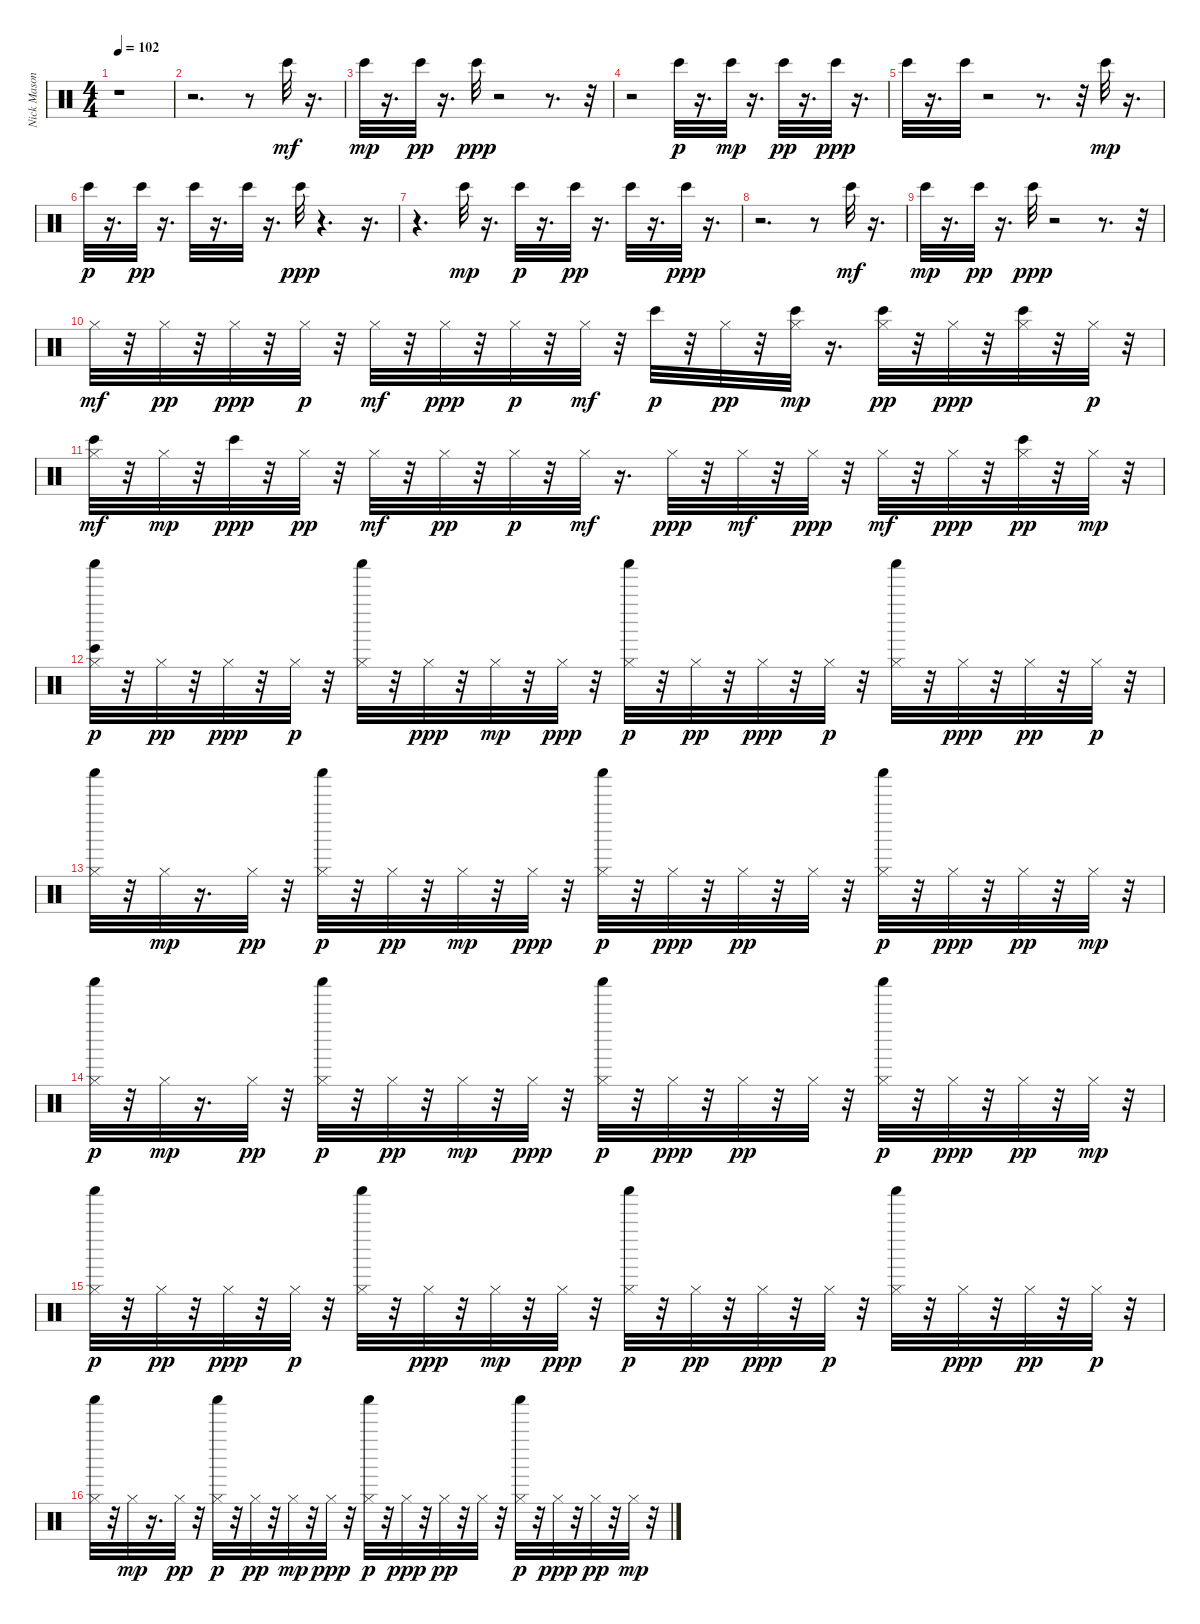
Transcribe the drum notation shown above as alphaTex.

\track ("Nick Mason / Gary Wallis" "Nick Mason") {instrument percussion}
\staff {score}
\articulation defaults
\ts (4 4)
\tempo 102
\clef neutral
\ks c
r.1{dy mf} |
r.2{d} r.8 "Bongo High (hit)".32 r.16{d} |
"Bongo High (hit)".32{dy mp} r.16{d} "Bongo High (hit)".32{dy pp} r.16{d} "Bongo High (hit)".32{dy ppp} r.2 r.8{d} r.32 |
r.2 "Bongo High (hit)".32{dy p} r.16{d} "Bongo High (hit)".32{dy mp} r.16{d} "Bongo High (hit)".32{dy pp} r.16{d} "Bongo High (hit)".32{dy ppp} r.16{d} |
"Bongo High (hit)".32 r.16{d} "Bongo High (hit)".32 r.2 r.8{d} r.32 "Bongo High (hit)".32{dy mp} r.16{d} |
"Bongo High (hit)".32{dy p} r.16{d} "Bongo High (hit)".32{dy pp} r.16{d} "Bongo High (hit)".32 r.16{d} "Bongo High (hit)".32 r.16{d} "Bongo High (hit)".32{dy ppp} r.4{d} r.16{d} |
r.4{d} "Bongo High (hit)".32{dy mp} r.16{d} "Bongo High (hit)".32{dy p} r.16{d} "Bongo High (hit)".32{dy pp} r.16{d} "Bongo High (hit)".32 r.16{d} "Bongo High (hit)".32{dy ppp} r.16{d} |
r.2{d} r.8 "Bongo High (hit)".32{dy mf} r.16{d} |
"Bongo High (hit)".32{dy mp} r.16{d} "Bongo High (hit)".32{dy pp} r.16{d} "Bongo High (hit)".32{dy ppp} r.2 r.8{d} r.32 |
"Hi-Hat (closed)".32{dy mf} r.32 "Hi-Hat (closed)".32{dy pp} r.32 "Hi-Hat (closed)".32{dy ppp} r.32 "Hi-Hat (closed)".32{dy p} r.32 "Hi-Hat (closed)".32{dy mf} r.32 "Hi-Hat (closed)".32{dy ppp} r.32 "Hi-Hat (closed)".32{dy p} r.32 "Hi-Hat (closed)".32{dy mf} r.32 "Bongo High (hit)".32{dy p} r.32 "Hi-Hat (closed)".32{dy pp} r.32 ("Bongo High (hit)" "Hi-Hat (closed)").32{dy mp} r.16{d} ("Hi-Hat (closed)" "Bongo High (hit)").32{dy pp} r.32 "Hi-Hat (closed)".32{dy ppp} r.32 ("Hi-Hat (closed)" "Bongo High (hit)").32 r.32 "Hi-Hat (closed)".32{dy p} r.32 |
("Bongo High (hit)" "Hi-Hat (closed)").32{dy mf} r.32 "Hi-Hat (closed)".32{dy mp} r.32 "Bongo High (hit)".32{dy ppp} r.32 "Hi-Hat (closed)".32{dy pp} r.32 "Hi-Hat (closed)".32{dy mf} r.32 "Hi-Hat (closed)".32{dy pp} r.32 "Hi-Hat (closed)".32{dy p} r.32 "Hi-Hat (closed)".32{dy mf} r.16{d} "Hi-Hat (closed)".32{dy ppp} r.32 "Hi-Hat (closed)".32{dy mf} r.32 "Hi-Hat (closed)".32{dy ppp} r.32 "Hi-Hat (closed)".32{dy mf} r.32 "Hi-Hat (closed)".32{dy ppp} r.32 ("Bongo High (hit)" "Hi-Hat (closed)").32{dy pp} r.32 "Hi-Hat (closed)".32{dy mp} r.32 |
("Bongo High (hit)" "Hi-Hat (closed)" "Shaker (hit)").32{dy p} r.32 "Hi-Hat (closed)".32{dy pp} r.32 "Hi-Hat (closed)".32{dy ppp} r.32 "Hi-Hat (closed)".32{dy p} r.32 ("Hi-Hat (closed)" "Shaker (hit)").32 r.32 "Hi-Hat (closed)".32{dy ppp} r.32 "Hi-Hat (closed)".32{dy mp} r.32 "Hi-Hat (closed)".32{dy ppp} r.32 ("Hi-Hat (closed)" "Shaker (hit)").32{dy p} r.32 "Hi-Hat (closed)".32{dy pp} r.32 "Hi-Hat (closed)".32{dy ppp} r.32 "Hi-Hat (closed)".32{dy p} r.32 ("Hi-Hat (closed)" "Shaker (hit)").32 r.32 "Hi-Hat (closed)".32{dy ppp} r.32 "Hi-Hat (closed)".32{dy pp} r.32 "Hi-Hat (closed)".32{dy p} r.32 |
("Hi-Hat (closed)" "Shaker (hit)").32 r.32 "Hi-Hat (closed)".32{dy mp} r.16{d} "Hi-Hat (closed)".32{dy pp} r.32 ("Hi-Hat (closed)" "Shaker (hit)").32{dy p} r.32 "Hi-Hat (closed)".32{dy pp} r.32 "Hi-Hat (closed)".32{dy mp} r.32 "Hi-Hat (closed)".32{dy ppp} r.32 ("Hi-Hat (closed)" "Shaker (hit)").32{dy p} r.32 "Hi-Hat (closed)".32{dy ppp} r.32 "Hi-Hat (closed)".32{dy pp} r.32 "Hi-Hat (closed)".32 r.32 ("Hi-Hat (closed)" "Shaker (hit)").32{dy p} r.32 "Hi-Hat (closed)".32{dy ppp} r.32 "Hi-Hat (closed)".32{dy pp} r.32 "Hi-Hat (closed)".32{dy mp} r.32 |
("Hi-Hat (closed)" "Shaker (hit)").32{dy p} r.32 "Hi-Hat (closed)".32{dy mp} r.16{d} "Hi-Hat (closed)".32{dy pp} r.32 ("Hi-Hat (closed)" "Shaker (hit)").32{dy p} r.32 "Hi-Hat (closed)".32{dy pp} r.32 "Hi-Hat (closed)".32{dy mp} r.32 "Hi-Hat (closed)".32{dy ppp} r.32 ("Hi-Hat (closed)" "Shaker (hit)").32{dy p} r.32 "Hi-Hat (closed)".32{dy ppp} r.32 "Hi-Hat (closed)".32{dy pp} r.32 "Hi-Hat (closed)".32 r.32 ("Hi-Hat (closed)" "Shaker (hit)").32{dy p} r.32 "Hi-Hat (closed)".32{dy ppp} r.32 "Hi-Hat (closed)".32{dy pp} r.32 "Hi-Hat (closed)".32{dy mp} r.32 |
("Hi-Hat (closed)" "Shaker (hit)").32{dy p} r.32 "Hi-Hat (closed)".32{dy pp} r.32 "Hi-Hat (closed)".32{dy ppp} r.32 "Hi-Hat (closed)".32{dy p} r.32 ("Hi-Hat (closed)" "Shaker (hit)").32 r.32 "Hi-Hat (closed)".32{dy ppp} r.32 "Hi-Hat (closed)".32{dy mp} r.32 "Hi-Hat (closed)".32{dy ppp} r.32 ("Hi-Hat (closed)" "Shaker (hit)").32{dy p} r.32 "Hi-Hat (closed)".32{dy pp} r.32 "Hi-Hat (closed)".32{dy ppp} r.32 "Hi-Hat (closed)".32{dy p} r.32 ("Hi-Hat (closed)" "Shaker (hit)").32 r.32 "Hi-Hat (closed)".32{dy ppp} r.32 "Hi-Hat (closed)".32{dy pp} r.32 "Hi-Hat (closed)".32{dy p} r.32 |
("Hi-Hat (closed)" "Shaker (hit)").32 r.32 "Hi-Hat (closed)".32{dy mp} r.16{d} "Hi-Hat (closed)".32{dy pp} r.32 ("Hi-Hat (closed)" "Shaker (hit)").32{dy p} r.32 "Hi-Hat (closed)".32{dy pp} r.32 "Hi-Hat (closed)".32{dy mp} r.32 "Hi-Hat (closed)".32{dy ppp} r.32 ("Hi-Hat (closed)" "Shaker (hit)").32{dy p} r.32 "Hi-Hat (closed)".32{dy ppp} r.32 "Hi-Hat (closed)".32{dy pp} r.32 "Hi-Hat (closed)".32 r.32 ("Hi-Hat (closed)" "Shaker (hit)").32{dy p} r.32 "Hi-Hat (closed)".32{dy ppp} r.32 "Hi-Hat (closed)".32{dy pp} r.32 "Hi-Hat (closed)".32{dy mp} r.32
